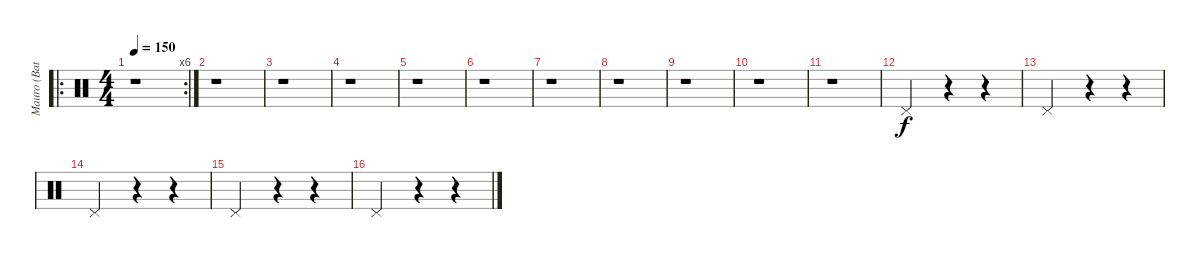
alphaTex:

\track ("Mauro (Bateria)" "Mauro (Bat") {instrument percussion}
\staff {score}
\articulation defaults
\ro
\rc 6
\ts (4 4)
\tempo 150
\clef neutral
\ks c
r.1{dy f} |
r.1 |
r.1 |
r.1 |
r.1 |
r.1 |
r.1 |
r.1 |
r.1 |
r.1 |
r.1 |
"Pedal Hi-Hat (hit)".2 r.4 r.4 |
"Pedal Hi-Hat (hit)".2 r.4 r.4 |
"Pedal Hi-Hat (hit)".2 r.4 r.4 |
"Pedal Hi-Hat (hit)".2 r.4 r.4 |
"Pedal Hi-Hat (hit)".2 r.4 r.4
